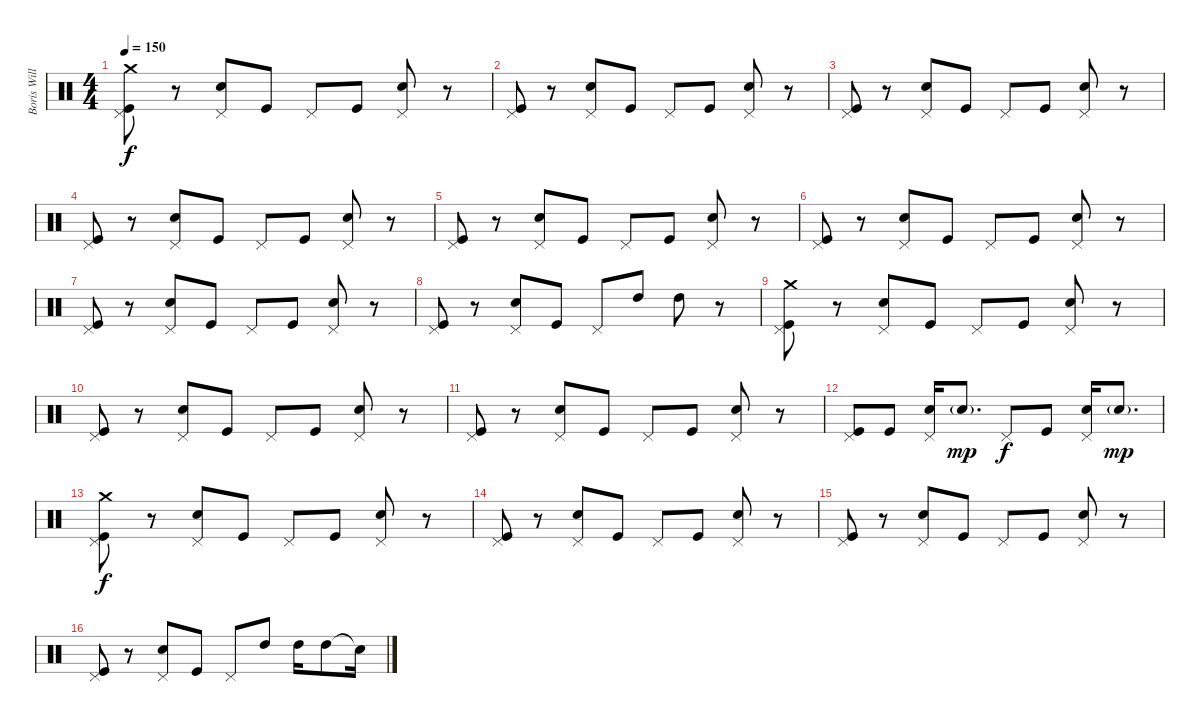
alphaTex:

\track ("Boris Williams" "Boris Will") {instrument percussion}
\staff {score}
\articulation defaults
\ts (4 4)
\tempo 150
\clef neutral
\ks c
("Pedal Hi-Hat (hit)" "Kick (hit)" "Crash medium (hit)").8{dy f} r.8 ("Pedal Hi-Hat (hit)" "Snare (hit) 2").8 "Kick (hit)".8 "Pedal Hi-Hat (hit)".8 "Kick (hit)".8 ("Pedal Hi-Hat (hit)" "Snare (hit) 2").8 r.8 |
("Pedal Hi-Hat (hit)" "Kick (hit)").8 r.8 ("Pedal Hi-Hat (hit)" "Snare (hit) 2").8 "Kick (hit)".8 "Pedal Hi-Hat (hit)".8 "Kick (hit)".8 ("Pedal Hi-Hat (hit)" "Snare (hit) 2").8 r.8 |
("Pedal Hi-Hat (hit)" "Kick (hit)").8 r.8 ("Pedal Hi-Hat (hit)" "Snare (hit) 2").8 "Kick (hit)".8 "Pedal Hi-Hat (hit)".8 "Kick (hit)".8 ("Pedal Hi-Hat (hit)" "Snare (hit) 2").8 r.8 |
("Pedal Hi-Hat (hit)" "Kick (hit)").8 r.8 ("Pedal Hi-Hat (hit)" "Snare (hit) 2").8 "Kick (hit)".8 "Pedal Hi-Hat (hit)".8 "Kick (hit)".8 ("Pedal Hi-Hat (hit)" "Snare (hit) 2").8 r.8 |
("Pedal Hi-Hat (hit)" "Kick (hit)").8 r.8 ("Pedal Hi-Hat (hit)" "Snare (hit) 2").8 "Kick (hit)".8 "Pedal Hi-Hat (hit)".8 "Kick (hit)".8 ("Pedal Hi-Hat (hit)" "Snare (hit) 2").8 r.8 |
("Pedal Hi-Hat (hit)" "Kick (hit)").8 r.8 ("Pedal Hi-Hat (hit)" "Snare (hit) 2").8 "Kick (hit)".8 "Pedal Hi-Hat (hit)".8 "Kick (hit)".8 ("Pedal Hi-Hat (hit)" "Snare (hit) 2").8 r.8 |
("Pedal Hi-Hat (hit)" "Kick (hit)").8 r.8 ("Pedal Hi-Hat (hit)" "Snare (hit) 2").8 "Kick (hit)".8 "Pedal Hi-Hat (hit)".8 "Kick (hit)".8 ("Pedal Hi-Hat (hit)" "Snare (hit) 2").8 r.8 |
("Pedal Hi-Hat (hit)" "Kick (hit)").8 r.8 ("Pedal Hi-Hat (hit)" "Snare (hit) 2").8 "Kick (hit)".8 "Pedal Hi-Hat (hit)".8 "High Tom (hit)".8 "High Tom (hit)".8 r.8 |
("Pedal Hi-Hat (hit)" "Kick (hit)" "Crash medium (hit)").8 r.8 ("Pedal Hi-Hat (hit)" "Snare (hit) 2").8 "Kick (hit)".8 "Pedal Hi-Hat (hit)".8 "Kick (hit)".8 ("Pedal Hi-Hat (hit)" "Snare (hit) 2").8 r.8 |
("Pedal Hi-Hat (hit)" "Kick (hit)").8 r.8 ("Pedal Hi-Hat (hit)" "Snare (hit) 2").8 "Kick (hit)".8 "Pedal Hi-Hat (hit)".8 "Kick (hit)".8 ("Pedal Hi-Hat (hit)" "Snare (hit) 2").8 r.8 |
("Pedal Hi-Hat (hit)" "Kick (hit)").8 r.8 ("Pedal Hi-Hat (hit)" "Snare (hit) 2").8 "Kick (hit)".8 "Pedal Hi-Hat (hit)".8 "Kick (hit)".8 ("Pedal Hi-Hat (hit)" "Snare (hit) 2").8 r.8 |
("Pedal Hi-Hat (hit)" "Kick (hit)").8 "Kick (hit)".8 ("Pedal Hi-Hat (hit)" "Snare (hit) 2").16 "Snare (hit) 2"{g}.8{d dy mp} "Pedal Hi-Hat (hit)".8{dy f} "Kick (hit)".8 ("Pedal Hi-Hat (hit)" "Snare (hit) 2").16 "Snare (hit) 2"{g}.8{d dy mp} |
("Pedal Hi-Hat (hit)" "Kick (hit)" "Crash medium (hit)").8{dy f} r.8 ("Pedal Hi-Hat (hit)" "Snare (hit) 2").8 "Kick (hit)".8 "Pedal Hi-Hat (hit)".8 "Kick (hit)".8 ("Pedal Hi-Hat (hit)" "Snare (hit) 2").8 r.8 |
("Pedal Hi-Hat (hit)" "Kick (hit)").8 r.8 ("Pedal Hi-Hat (hit)" "Snare (hit) 2").8 "Kick (hit)".8 "Pedal Hi-Hat (hit)".8 "Kick (hit)".8 ("Pedal Hi-Hat (hit)" "Snare (hit) 2").8 r.8 |
("Pedal Hi-Hat (hit)" "Kick (hit)").8 r.8 ("Pedal Hi-Hat (hit)" "Snare (hit) 2").8 "Kick (hit)".8 "Pedal Hi-Hat (hit)".8 "Kick (hit)".8 ("Pedal Hi-Hat (hit)" "Snare (hit) 2").8 r.8 |
("Pedal Hi-Hat (hit)" "Kick (hit)").8 r.8 ("Pedal Hi-Hat (hit)" "Snare (hit) 2").8 "Kick (hit)".8 "Pedal Hi-Hat (hit)".8 "High Tom (hit)".8 "High Tom (hit)".16 "High Tom (hit)".8 "Snare (hit)"{t}.16
